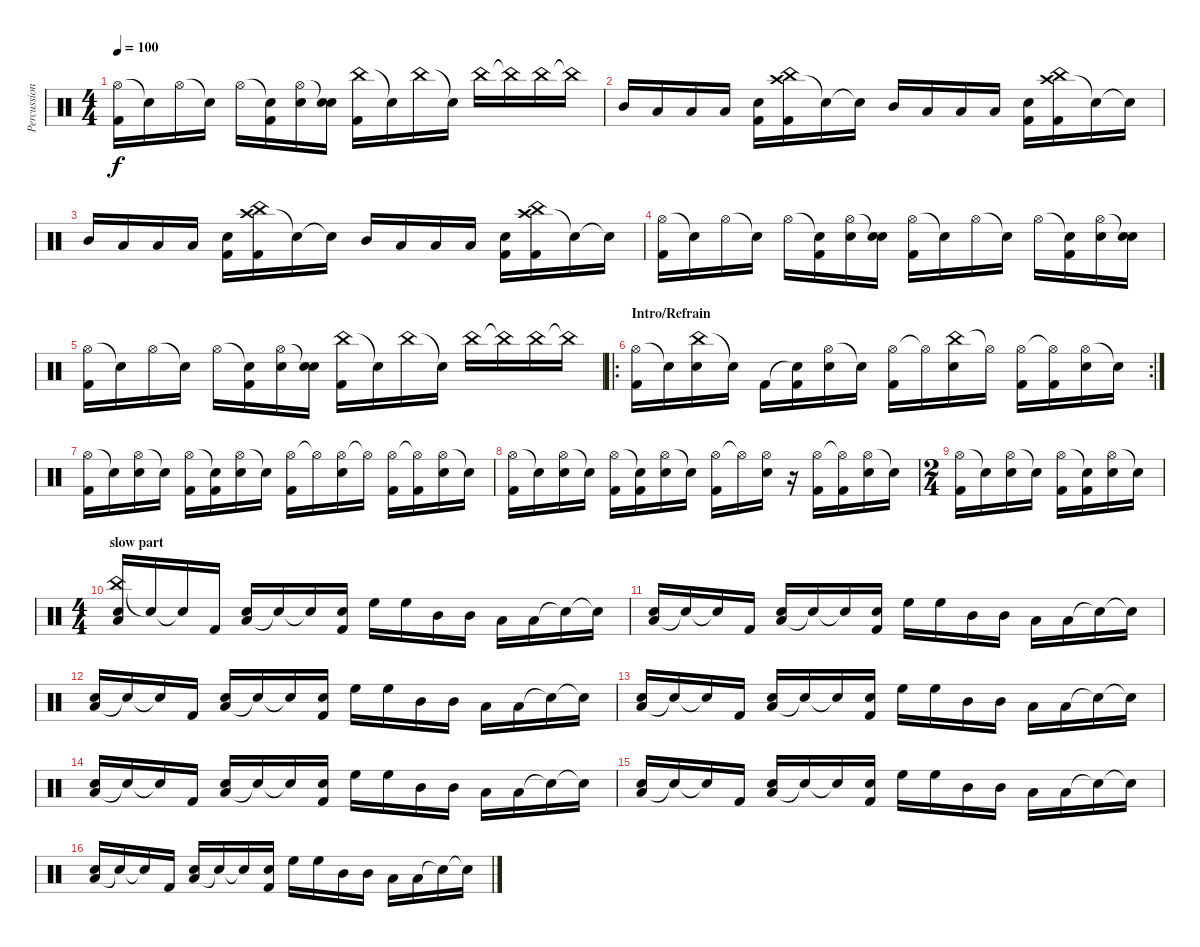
\track ("Percussion" "Percussion") {instrument percussion}
\staff {score}
\articulation defaults
\ts (4 4)
\tempo 100
\clef neutral
\ks c
("Hi-Hat (open)" "Kick (hit) 2").16{dy f} "Snare (hit)"{t}.16 "Hi-Hat (open)".16 "Snare (hit)"{t}.16 "Hi-Hat (open)".16 ("Snare (hit)"{t} "Kick (hit) 2").16 ("Hi-Hat (open)" "Snare (hit) 2").16 ("Snare (hit)"{t} "Snare (hit) 2").16 ("China (hit)" "Kick (hit) 2").16 "Snare (hit)"{t}.16 "China (hit)".16 "Snare (hit)"{t}.16 "China (hit)".16 "China (hit)"{t}.16 "China (hit)".16 "China (hit)"{t}.16 |
"Mid Tom (hit)".16 "Low Tom (hit)".16 "Low Floor Tom (hit)".16 "Low Floor Tom (hit)".16 ("Snare (hit) 2" "Kick (hit) 2").16 ("Crash high (hit)" "China (hit)" "Kick (hit) 2").16 "Snare (hit)"{t}.16 "Snare (hit)"{t}.16 "Mid Tom (hit)".16 "Low Tom (hit)".16 "Low Floor Tom (hit)".16 "Low Floor Tom (hit)".16 ("Snare (hit) 2" "Kick (hit) 2").16 ("Crash high (hit)" "China (hit)" "Kick (hit) 2").16 "Snare (hit)"{t}.16 "Snare (hit)"{t}.16 |
"Mid Tom (hit)".16 "Low Tom (hit)".16 "Low Floor Tom (hit)".16 "Low Floor Tom (hit)".16 ("Snare (hit) 2" "Kick (hit) 2").16 ("Crash high (hit)" "China (hit)" "Kick (hit) 2").16 "Snare (hit)"{t}.16 "Snare (hit)"{t}.16 "Mid Tom (hit)".16 "Low Tom (hit)".16 "Low Floor Tom (hit)".16 "Low Floor Tom (hit)".16 ("Snare (hit) 2" "Kick (hit) 2").16 ("Crash high (hit)" "China (hit)" "Kick (hit) 2").16 "Snare (hit)"{t}.16 "Snare (hit)"{t}.16 |
("Hi-Hat (open)" "Kick (hit) 2").16 "Snare (hit)"{t}.16 "Hi-Hat (open)".16 "Snare (hit)"{t}.16 "Hi-Hat (open)".16 ("Snare (hit)"{t} "Kick (hit) 2").16 ("Hi-Hat (open)" "Snare (hit) 2").16 ("Snare (hit)"{t} "Snare (hit) 2").16 ("Hi-Hat (open)" "Kick (hit) 2").16 "Snare (hit)"{t}.16 "Hi-Hat (open)".16 "Snare (hit)"{t}.16 "Hi-Hat (open)".16 ("Snare (hit)"{t} "Kick (hit) 2").16 ("Hi-Hat (open)" "Snare (hit) 2").16 ("Snare (hit)"{t} "Snare (hit) 2").16 |
("Hi-Hat (open)" "Kick (hit) 2").16 "Snare (hit)"{t}.16 "Hi-Hat (open)".16 "Snare (hit)"{t}.16 "Hi-Hat (open)".16 ("Snare (hit)"{t} "Kick (hit) 2").16 ("Hi-Hat (open)" "Snare (hit) 2").16 ("Snare (hit)"{t} "Snare (hit) 2").16 ("China (hit)" "Kick (hit) 2").16 "Snare (hit)"{t}.16 "China (hit)".16 "Snare (hit)"{t}.16 "China (hit)".16 "China (hit)"{t}.16 "China (hit)".16 "China (hit)"{t}.16 |
\ro
\rc 2
\section ("" "Intro/Refrain")
("Hi-Hat (open)" "Kick (hit) 2").16 "Snare (hit)"{t}.16 ("China (hit)" "Snare (hit) 2").16 "Snare (hit)"{t}.16 "Kick (hit) 2".16 ("Snare (hit)"{t} "Kick (hit) 2").16 ("Hi-Hat (open)" "Snare (hit) 2").16 "Snare (hit)"{t}.16 ("Hi-Hat (open)" "Kick (hit) 2").16 "Hi-Hat (open)"{t}.16 ("China (hit)" "Snare (hit) 2").16 "Hi-Hat (open)"{t}.16 ("Hi-Hat (open)" "Kick (hit) 2").16 ("Hi-Hat (open)"{t} "Kick (hit) 2").16 ("Hi-Hat (open)" "Snare (hit) 2").16 "Snare (hit)"{t}.16 |
("Hi-Hat (open)" "Kick (hit) 2").16 "Snare (hit)"{t}.16 ("Hi-Hat (open)" "Snare (hit) 2").16 "Snare (hit)"{t}.16 ("Hi-Hat (open)" "Kick (hit) 2").16 ("Snare (hit)"{t} "Kick (hit) 2").16 ("Hi-Hat (open)" "Snare (hit) 2").16 "Snare (hit)"{t}.16 ("Hi-Hat (open)" "Kick (hit) 2").16 "Hi-Hat (open)"{t}.16 ("Hi-Hat (open)" "Snare (hit) 2").16 "Hi-Hat (open)"{t}.16 ("Hi-Hat (open)" "Kick (hit) 2").16 ("Hi-Hat (open)"{t} "Kick (hit) 2").16 ("Hi-Hat (open)" "Snare (hit) 2").16 "Snare (hit)"{t}.16 |
("Hi-Hat (open)" "Kick (hit) 2").16 "Snare (hit)"{t}.16 ("Hi-Hat (open)" "Snare (hit) 2").16 "Snare (hit)"{t}.16 ("Hi-Hat (open)" "Kick (hit) 2").16 ("Snare (hit)"{t} "Kick (hit) 2").16 ("Hi-Hat (open)" "Snare (hit) 2").16 "Snare (hit)"{t}.16 ("Hi-Hat (open)" "Kick (hit) 2").16 "Hi-Hat (open)"{t}.16 ("Hi-Hat (open)" "Snare (hit) 2").16 r.16 ("Hi-Hat (open)" "Kick (hit) 2").16 ("Hi-Hat (open)"{t} "Kick (hit) 2").16 ("Hi-Hat (open)" "Snare (hit) 2").16 "Snare (hit)"{t}.16 |
\ts (2 4)
("Hi-Hat (open)" "Kick (hit) 2").16 "Snare (hit)"{t}.16 ("Hi-Hat (open)" "Snare (hit) 2").16 "Snare (hit)"{t}.16 ("Hi-Hat (open)" "Kick (hit) 2").16 ("Snare (hit)"{t} "Kick (hit) 2").16 ("Hi-Hat (open)" "Snare (hit) 2").16 "Snare (hit)"{t}.16 |
\ts (4 4)
\section ("" "slow part")
("China (hit)" "Low Tom (hit)" "Snare (hit) 2").16 "Snare (hit)"{t}.16 "Snare (hit)"{t}.16 "Kick (hit) 2".16 ("Low Tom (hit)" "Snare (hit) 2").16 "Snare (hit)"{t}.16 "Snare (hit)"{t}.16 ("Snare (hit) 2" "Kick (hit) 2").16 "High Floor Tom (hit)".16 "High Floor Tom (hit)".16 "Mid Tom (hit)".16 "Mid Tom (hit)".16 "Low Tom (hit)".16 "Low Tom (hit)".16 "Snare (hit)"{t}.16 "Snare (hit)"{t}.16 |
("Low Tom (hit)" "Snare (hit) 2").16 "Snare (hit)"{t}.16 "Snare (hit)"{t}.16 "Kick (hit) 2".16 ("Low Tom (hit)" "Snare (hit) 2").16 "Snare (hit)"{t}.16 "Snare (hit)"{t}.16 ("Snare (hit) 2" "Kick (hit) 2").16 "High Floor Tom (hit)".16 "High Floor Tom (hit)".16 "Mid Tom (hit)".16 "Mid Tom (hit)".16 "Low Tom (hit)".16 "Low Tom (hit)".16 "Snare (hit)"{t}.16 "Snare (hit)"{t}.16 |
("Low Tom (hit)" "Snare (hit) 2").16 "Snare (hit)"{t}.16 "Snare (hit)"{t}.16 "Kick (hit) 2".16 ("Low Tom (hit)" "Snare (hit) 2").16 "Snare (hit)"{t}.16 "Snare (hit)"{t}.16 ("Snare (hit) 2" "Kick (hit) 2").16 "High Floor Tom (hit)".16 "High Floor Tom (hit)".16 "Mid Tom (hit)".16 "Mid Tom (hit)".16 "Low Tom (hit)".16 "Low Tom (hit)".16 "Snare (hit)"{t}.16 "Snare (hit)"{t}.16 |
("Low Tom (hit)" "Snare (hit) 2").16 "Snare (hit)"{t}.16 "Snare (hit)"{t}.16 "Kick (hit) 2".16 ("Low Tom (hit)" "Snare (hit) 2").16 "Snare (hit)"{t}.16 "Snare (hit)"{t}.16 ("Snare (hit) 2" "Kick (hit) 2").16 "High Floor Tom (hit)".16 "High Floor Tom (hit)".16 "Mid Tom (hit)".16 "Mid Tom (hit)".16 "Low Tom (hit)".16 "Low Tom (hit)".16 "Snare (hit)"{t}.16 "Snare (hit)"{t}.16 |
("Low Tom (hit)" "Snare (hit) 2").16 "Snare (hit)"{t}.16 "Snare (hit)"{t}.16 "Kick (hit) 2".16 ("Low Tom (hit)" "Snare (hit) 2").16 "Snare (hit)"{t}.16 "Snare (hit)"{t}.16 ("Snare (hit) 2" "Kick (hit) 2").16 "High Floor Tom (hit)".16 "High Floor Tom (hit)".16 "Mid Tom (hit)".16 "Mid Tom (hit)".16 "Low Tom (hit)".16 "Low Tom (hit)".16 "Snare (hit)"{t}.16 "Snare (hit)"{t}.16 |
("Low Tom (hit)" "Snare (hit) 2").16 "Snare (hit)"{t}.16 "Snare (hit)"{t}.16 "Kick (hit) 2".16 ("Low Tom (hit)" "Snare (hit) 2").16 "Snare (hit)"{t}.16 "Snare (hit)"{t}.16 ("Snare (hit) 2" "Kick (hit) 2").16 "High Floor Tom (hit)".16 "High Floor Tom (hit)".16 "Mid Tom (hit)".16 "Mid Tom (hit)".16 "Low Tom (hit)".16 "Low Tom (hit)".16 "Snare (hit)"{t}.16 "Snare (hit)"{t}.16 |
("Low Tom (hit)" "Snare (hit) 2").16 "Snare (hit)"{t}.16 "Snare (hit)"{t}.16 "Kick (hit) 2".16 ("Low Tom (hit)" "Snare (hit) 2").16 "Snare (hit)"{t}.16 "Snare (hit)"{t}.16 ("Snare (hit) 2" "Kick (hit) 2").16 "High Floor Tom (hit)".16 "High Floor Tom (hit)".16 "Mid Tom (hit)".16 "Mid Tom (hit)".16 "Low Tom (hit)".16 "Low Tom (hit)".16 "Snare (hit)"{t}.16 "Snare (hit)"{t}.16
